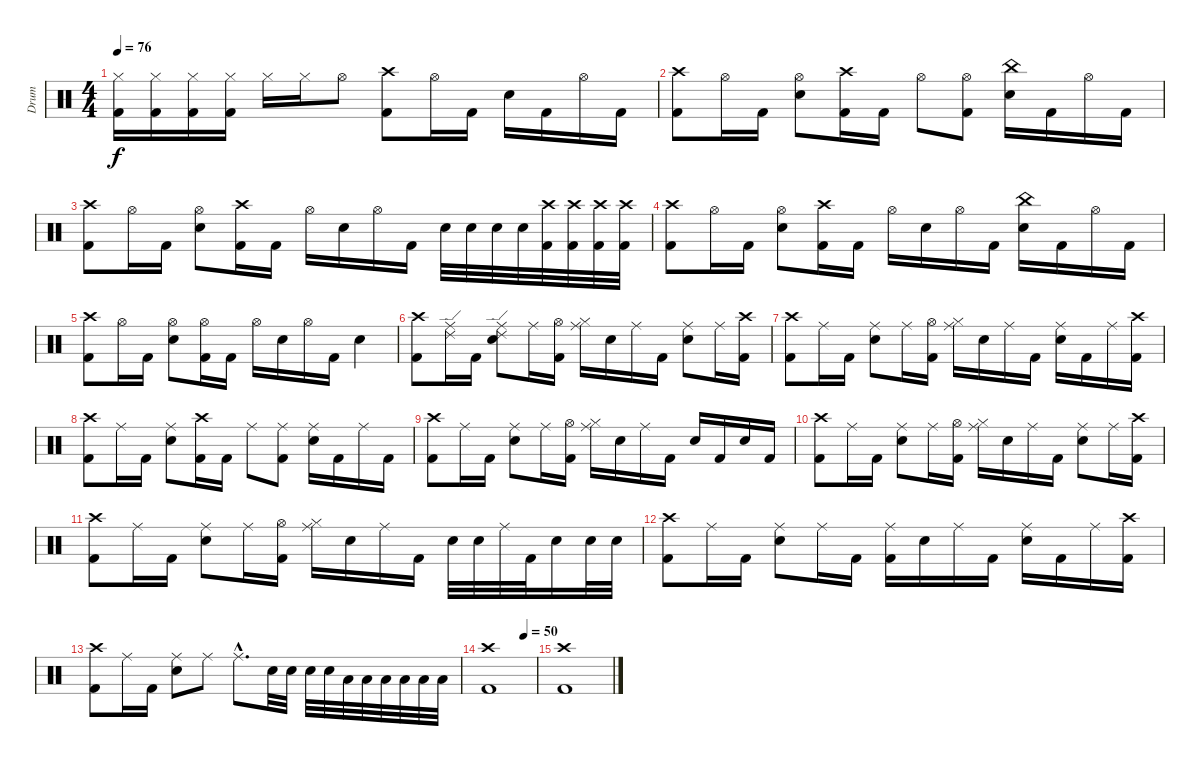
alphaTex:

\track ("Drum" "Drum") {instrument percussion}
\staff {score}
\articulation defaults
\ts (4 4)
\tempo 76
\clef neutral
\ks c
("Hi-Hat (closed)" "Kick (hit) 2").16{dy f} ("Hi-Hat (closed)" "Kick (hit) 2").16 ("Hi-Hat (closed)" "Kick (hit) 2").16 ("Hi-Hat (closed)" "Kick (hit) 2").16 "Hi-Hat (closed)".16 "Hi-Hat (closed)".16 "Hi-Hat (open)".8 ("Crash high (hit)" "Kick (hit) 2").8 "Hi-Hat (open)".16 "Kick (hit) 2".16 "Electric Snare (hit)".16 "Kick (hit) 2".16 "Hi-Hat (open)".16 "Kick (hit) 2".16 |
("Crash high (hit)" "Kick (hit) 2").8 "Hi-Hat (open)".16 "Kick (hit) 2".16 ("Hi-Hat (open)" "Electric Snare (hit)").8 ("Crash high (hit)" "Kick (hit) 2").16 "Kick (hit) 2".16 "Hi-Hat (open)".8 ("Hi-Hat (open)" "Kick (hit) 2").8 ("China (hit)" "Electric Snare (hit)").16 "Kick (hit) 2".16 "Hi-Hat (open)".16 "Kick (hit) 2".16 |
("Crash high (hit)" "Kick (hit) 2").8 "Hi-Hat (open)".16 "Kick (hit) 2".16 ("Hi-Hat (open)" "Electric Snare (hit)").8 ("Crash high (hit)" "Kick (hit) 2").16 "Kick (hit) 2".16 "Hi-Hat (open)".16 "Electric Snare (hit)".16 "Hi-Hat (open)".16 "Kick (hit) 2".16 "Electric Snare (hit)".32 "Electric Snare (hit)".32 "Electric Snare (hit)".32 "Electric Snare (hit)".32 ("Crash high (hit)" "Kick (hit) 2").32 ("Crash high (hit)" "Kick (hit) 2").32 ("Crash high (hit)" "Kick (hit) 2").32 ("Crash high (hit)" "Kick (hit) 2").32 |
("Crash high (hit)" "Kick (hit) 2").8 "Hi-Hat (open)".16 "Kick (hit) 2".16 ("Hi-Hat (open)" "Electric Snare (hit)").8 ("Crash high (hit)" "Kick (hit) 2").16 "Kick (hit) 2".16 "Hi-Hat (open)".16 "Electric Snare (hit)".16 "Hi-Hat (open)".16 "Kick (hit) 2".16 ("China (hit)" "Electric Snare (hit)").16 "Kick (hit) 2".16 "Hi-Hat (open)".16 "Kick (hit) 2".16 |
("Crash high (hit)" "Kick (hit) 2").8 "Hi-Hat (open)".16 "Kick (hit) 2".16 ("Hi-Hat (open)" "Electric Snare (hit)").8 ("Hi-Hat (open)" "Kick (hit) 2").16 "Kick (hit) 2".16 "Hi-Hat (open)".16 "Electric Snare (hit)".16 "Hi-Hat (open)".16 "Kick (hit) 2".16 "Electric Snare (hit)".4 |
("Crash high (hit)" "Kick (hit) 2").8 ("Ride (middle)" "Ride (edge) 2").16 "Kick (hit) 2".16 ("Ride (middle)" "Ride (edge) 2" "Electric Snare (hit)").8 "Ride (middle)".16 ("Hi-Hat (open)" "Kick (hit) 2").16 ("Ride (middle)" "Hi-Hat (closed)").16 "Electric Snare (hit)".16 "Ride (middle)".16 "Kick (hit) 2".16 ("Ride (middle)" "Electric Snare (hit)").8 "Ride (middle)".16 ("Crash high (hit)" "Kick (hit) 2").16 |
("Crash high (hit)" "Kick (hit) 2").8 "Ride (middle)".16 "Kick (hit) 2".16 ("Ride (middle)" "Electric Snare (hit)").8 "Ride (middle)".16 ("Hi-Hat (open)" "Kick (hit) 2").16 ("Ride (middle)" "Hi-Hat (closed)").16 "Electric Snare (hit)".16 "Ride (middle)".16 "Kick (hit) 2".16 ("Ride (middle)" "Electric Snare (hit)").16 "Kick (hit) 2".16 "Ride (middle)".16 ("Crash high (hit)" "Kick (hit) 2").16 |
("Crash high (hit)" "Kick (hit) 2").8 "Ride (middle)".16 "Kick (hit) 2".16 ("Ride (middle)" "Electric Snare (hit)").8 ("Crash high (hit)" "Kick (hit) 2").16 "Kick (hit) 2".16 "Ride (middle)".8 ("Ride (middle)" "Kick (hit) 2").8 ("Ride (middle)" "Electric Snare (hit)").16 "Kick (hit) 2".16 "Ride (middle)".16 "Kick (hit) 2".16 |
("Crash high (hit)" "Kick (hit) 2").8 "Ride (middle)".16 "Kick (hit) 2".16 ("Ride (middle)" "Electric Snare (hit)").8 "Ride (middle)".16 ("Hi-Hat (open)" "Kick (hit) 2").16 ("Ride (middle)" "Hi-Hat (closed)").16 "Electric Snare (hit)".16 "Ride (middle)".16 "Kick (hit) 2".16 "Electric Snare (hit)".16 "Kick (hit) 2".16 "Electric Snare (hit)".16 "Kick (hit) 2".16 |
("Crash high (hit)" "Kick (hit) 2").8 "Ride (middle)".16 "Kick (hit) 2".16 ("Ride (middle)" "Electric Snare (hit)").8 "Ride (middle)".16 ("Hi-Hat (open)" "Kick (hit) 2").16 ("Ride (middle)" "Hi-Hat (closed)").16 "Electric Snare (hit)".16 "Ride (middle)".16 "Kick (hit) 2".16 ("Ride (middle)" "Electric Snare (hit)").8 "Ride (middle)".16 ("Crash high (hit)" "Kick (hit) 2").16 |
("Crash high (hit)" "Kick (hit) 2").8 "Ride (middle)".16 "Kick (hit) 2".16 ("Ride (middle)" "Electric Snare (hit)").8 "Ride (middle)".16 ("Hi-Hat (open)" "Kick (hit) 2").16 ("Ride (middle)" "Hi-Hat (closed)").16 "Electric Snare (hit)".16 "Ride (middle)".16 "Kick (hit) 2".16 "Electric Snare (hit)".32 "Electric Snare (hit)".32 "Ride (middle)".32 "Kick (hit) 2".32 "Electric Snare (hit)".16 "Electric Snare (hit)".32 "Electric Snare (hit)".32 |
("Crash high (hit)" "Kick (hit) 2").8 "Ride (middle)".16 "Kick (hit) 2".16 ("Ride (middle)" "Electric Snare (hit)").8 "Ride (middle)".16 "Kick (hit) 2".16 ("Ride (middle)" "Kick (hit) 2").16 "Electric Snare (hit)".16 "Ride (middle)".16 "Kick (hit) 2".16 ("Ride (middle)" "Electric Snare (hit)").16 "Kick (hit) 2".16 "Ride (middle)".16 ("Crash high (hit)" "Kick (hit) 2").16 |
("Crash high (hit)" "Kick (hit) 2").8 "Ride (middle)".16 "Kick (hit) 2".16 ("Ride (middle)" "Electric Snare (hit)").8 "Ride (middle)".8 "Ride (middle)"{hac}.8{d} "Electric Snare (hit)".32 "Electric Snare (hit)".32 "Electric Snare (hit)".32 "Electric Snare (hit)".32 "Low Floor Tom (hit)".32 "Low Floor Tom (hit)".32 "Low Floor Tom (hit)".32 "Low Tom (hit)".32 "Low Tom (hit)".32 "Low Tom (hit)".32 |
\tempo (50 0.75)
("Crash high (hit)" "Kick (hit) 2").1 |
("Crash high (hit)" "Kick (hit) 2").1
